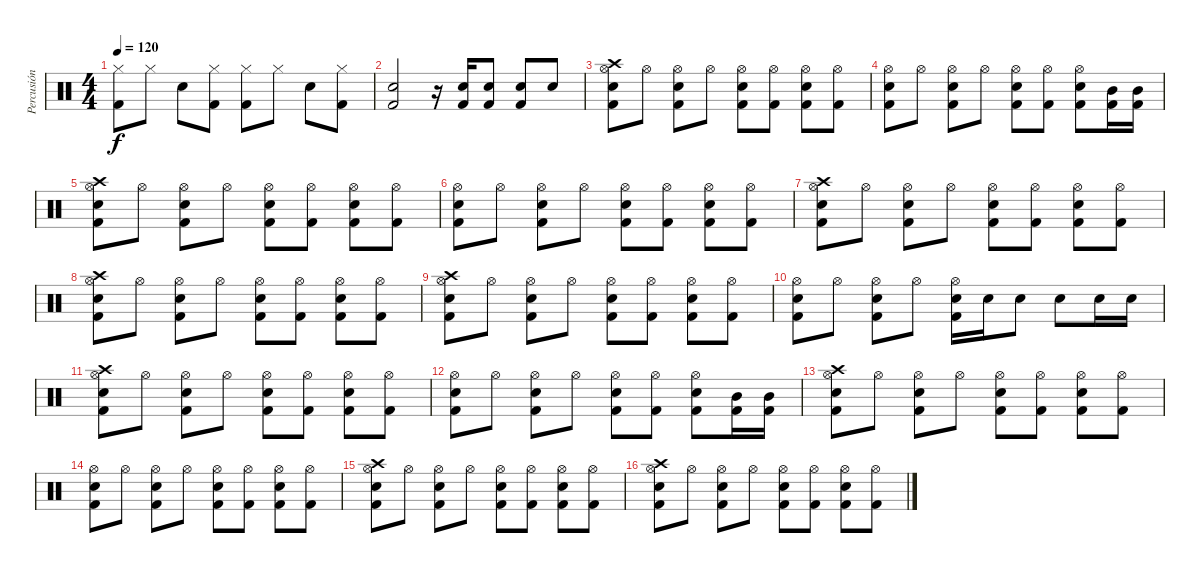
\track ("Percusión" "Percusión") {instrument percussion}
\staff {score}
\articulation defaults
\ts (4 4)
\tempo 120
\clef neutral
\ks c
("Hi-Hat (closed)" "Kick (hit) 2").8{dy f} "Hi-Hat (closed)".8 "Electric Snare (hit)".8 ("Hi-Hat (closed)" "Kick (hit) 2").8 ("Hi-Hat (closed)" "Kick (hit) 2").8 "Hi-Hat (closed)".8 "Electric Snare (hit)".8 ("Hi-Hat (closed)" "Kick (hit) 2").8 |
("Electric Snare (hit)" "Kick (hit) 2").2 r.16 ("Electric Snare (hit)" "Kick (hit) 2").16 ("Electric Snare (hit)" "Kick (hit) 2").8 ("Electric Snare (hit)" "Kick (hit) 2").8 "Electric Snare (hit)".8 |
("Crash high (hit)" "Hi-Hat (open)" "Electric Snare (hit)" "Kick (hit) 2").8 "Hi-Hat (open)".8 ("Hi-Hat (open)" "Electric Snare (hit)" "Kick (hit) 2").8 "Hi-Hat (open)".8 ("Hi-Hat (open)" "Electric Snare (hit)" "Kick (hit) 2").8 ("Hi-Hat (open)" "Kick (hit) 2").8 ("Hi-Hat (open)" "Electric Snare (hit)" "Kick (hit) 2").8 ("Hi-Hat (open)" "Kick (hit) 2").8 |
("Hi-Hat (open)" "Electric Snare (hit)" "Kick (hit) 2").8 "Hi-Hat (open)".8 ("Hi-Hat (open)" "Electric Snare (hit)" "Kick (hit) 2").8 "Hi-Hat (open)".8 ("Hi-Hat (open)" "Electric Snare (hit)" "Kick (hit) 2").8 ("Hi-Hat (open)" "Kick (hit) 2").8 ("Hi-Hat (open)" "Electric Snare (hit)" "Kick (hit) 2").8 ("Mid Tom (hit)" "Kick (hit) 2").16 ("Mid Tom (hit)" "Kick (hit) 2").16 |
("Crash high (hit)" "Hi-Hat (open)" "Electric Snare (hit)" "Kick (hit) 2").8 "Hi-Hat (open)".8 ("Hi-Hat (open)" "Electric Snare (hit)" "Kick (hit) 2").8 "Hi-Hat (open)".8 ("Hi-Hat (open)" "Electric Snare (hit)" "Kick (hit) 2").8 ("Hi-Hat (open)" "Kick (hit) 2").8 ("Hi-Hat (open)" "Electric Snare (hit)" "Kick (hit) 2").8 ("Hi-Hat (open)" "Kick (hit) 2").8 |
("Hi-Hat (open)" "Electric Snare (hit)" "Kick (hit) 2").8 "Hi-Hat (open)".8 ("Hi-Hat (open)" "Electric Snare (hit)" "Kick (hit) 2").8 "Hi-Hat (open)".8 ("Hi-Hat (open)" "Electric Snare (hit)" "Kick (hit) 2").8 ("Hi-Hat (open)" "Kick (hit) 2").8 ("Hi-Hat (open)" "Electric Snare (hit)" "Kick (hit) 2").8 ("Hi-Hat (open)" "Kick (hit) 2").8 |
("Crash high (hit)" "Hi-Hat (open)" "Electric Snare (hit)" "Kick (hit) 2").8 "Hi-Hat (open)".8 ("Hi-Hat (open)" "Electric Snare (hit)" "Kick (hit) 2").8 "Hi-Hat (open)".8 ("Hi-Hat (open)" "Electric Snare (hit)" "Kick (hit) 2").8 ("Hi-Hat (open)" "Kick (hit) 2").8 ("Hi-Hat (open)" "Electric Snare (hit)" "Kick (hit) 2").8 ("Hi-Hat (open)" "Kick (hit) 2").8 |
("Crash high (hit)" "Hi-Hat (open)" "Electric Snare (hit)" "Kick (hit) 2").8 "Hi-Hat (open)".8 ("Hi-Hat (open)" "Electric Snare (hit)" "Kick (hit) 2").8 "Hi-Hat (open)".8 ("Hi-Hat (open)" "Electric Snare (hit)" "Kick (hit) 2").8 ("Hi-Hat (open)" "Kick (hit) 2").8 ("Hi-Hat (open)" "Electric Snare (hit)" "Kick (hit) 2").8 ("Hi-Hat (open)" "Kick (hit) 2").8 |
("Crash high (hit)" "Hi-Hat (open)" "Electric Snare (hit)" "Kick (hit) 2").8 "Hi-Hat (open)".8 ("Hi-Hat (open)" "Electric Snare (hit)" "Kick (hit) 2").8 "Hi-Hat (open)".8 ("Hi-Hat (open)" "Electric Snare (hit)" "Kick (hit) 2").8 ("Hi-Hat (open)" "Kick (hit) 2").8 ("Hi-Hat (open)" "Electric Snare (hit)" "Kick (hit) 2").8 ("Hi-Hat (open)" "Kick (hit) 2").8 |
("Hi-Hat (open)" "Electric Snare (hit)" "Kick (hit) 2").8 "Hi-Hat (open)".8 ("Hi-Hat (open)" "Electric Snare (hit)" "Kick (hit) 2").8 "Hi-Hat (open)".8 ("Hi-Hat (open)" "Electric Snare (hit)" "Kick (hit) 2").16 "Electric Snare (hit)".16 "Electric Snare (hit)".8 "Electric Snare (hit)".8 "Electric Snare (hit)".16 "Electric Snare (hit)".16 |
("Crash high (hit)" "Hi-Hat (open)" "Electric Snare (hit)" "Kick (hit) 2").8 "Hi-Hat (open)".8 ("Hi-Hat (open)" "Electric Snare (hit)" "Kick (hit) 2").8 "Hi-Hat (open)".8 ("Hi-Hat (open)" "Electric Snare (hit)" "Kick (hit) 2").8 ("Hi-Hat (open)" "Kick (hit) 2").8 ("Hi-Hat (open)" "Electric Snare (hit)" "Kick (hit) 2").8 ("Hi-Hat (open)" "Kick (hit) 2").8 |
("Hi-Hat (open)" "Electric Snare (hit)" "Kick (hit) 2").8 "Hi-Hat (open)".8 ("Hi-Hat (open)" "Electric Snare (hit)" "Kick (hit) 2").8 "Hi-Hat (open)".8 ("Hi-Hat (open)" "Electric Snare (hit)" "Kick (hit) 2").8 ("Hi-Hat (open)" "Kick (hit) 2").8 ("Hi-Hat (open)" "Electric Snare (hit)" "Kick (hit) 2").8 ("Mid Tom (hit)" "Kick (hit) 2").16 ("Mid Tom (hit)" "Kick (hit) 2").16 |
("Crash high (hit)" "Hi-Hat (open)" "Electric Snare (hit)" "Kick (hit) 2").8 "Hi-Hat (open)".8 ("Hi-Hat (open)" "Electric Snare (hit)" "Kick (hit) 2").8 "Hi-Hat (open)".8 ("Hi-Hat (open)" "Electric Snare (hit)" "Kick (hit) 2").8 ("Hi-Hat (open)" "Kick (hit) 2").8 ("Hi-Hat (open)" "Electric Snare (hit)" "Kick (hit) 2").8 ("Hi-Hat (open)" "Kick (hit) 2").8 |
("Hi-Hat (open)" "Electric Snare (hit)" "Kick (hit) 2").8 "Hi-Hat (open)".8 ("Hi-Hat (open)" "Electric Snare (hit)" "Kick (hit) 2").8 "Hi-Hat (open)".8 ("Hi-Hat (open)" "Electric Snare (hit)" "Kick (hit) 2").8 ("Hi-Hat (open)" "Kick (hit) 2").8 ("Hi-Hat (open)" "Electric Snare (hit)" "Kick (hit) 2").8 ("Hi-Hat (open)" "Kick (hit) 2").8 |
("Crash high (hit)" "Hi-Hat (open)" "Electric Snare (hit)" "Kick (hit) 2").8 "Hi-Hat (open)".8 ("Hi-Hat (open)" "Electric Snare (hit)" "Kick (hit) 2").8 "Hi-Hat (open)".8 ("Hi-Hat (open)" "Electric Snare (hit)" "Kick (hit) 2").8 ("Hi-Hat (open)" "Kick (hit) 2").8 ("Hi-Hat (open)" "Electric Snare (hit)" "Kick (hit) 2").8 ("Hi-Hat (open)" "Kick (hit) 2").8 |
("Crash high (hit)" "Hi-Hat (open)" "Electric Snare (hit)" "Kick (hit) 2").8 "Hi-Hat (open)".8 ("Hi-Hat (open)" "Electric Snare (hit)" "Kick (hit) 2").8 "Hi-Hat (open)".8 ("Hi-Hat (open)" "Electric Snare (hit)" "Kick (hit) 2").8 ("Hi-Hat (open)" "Kick (hit) 2").8 ("Hi-Hat (open)" "Electric Snare (hit)" "Kick (hit) 2").8 ("Hi-Hat (open)" "Kick (hit) 2").8
